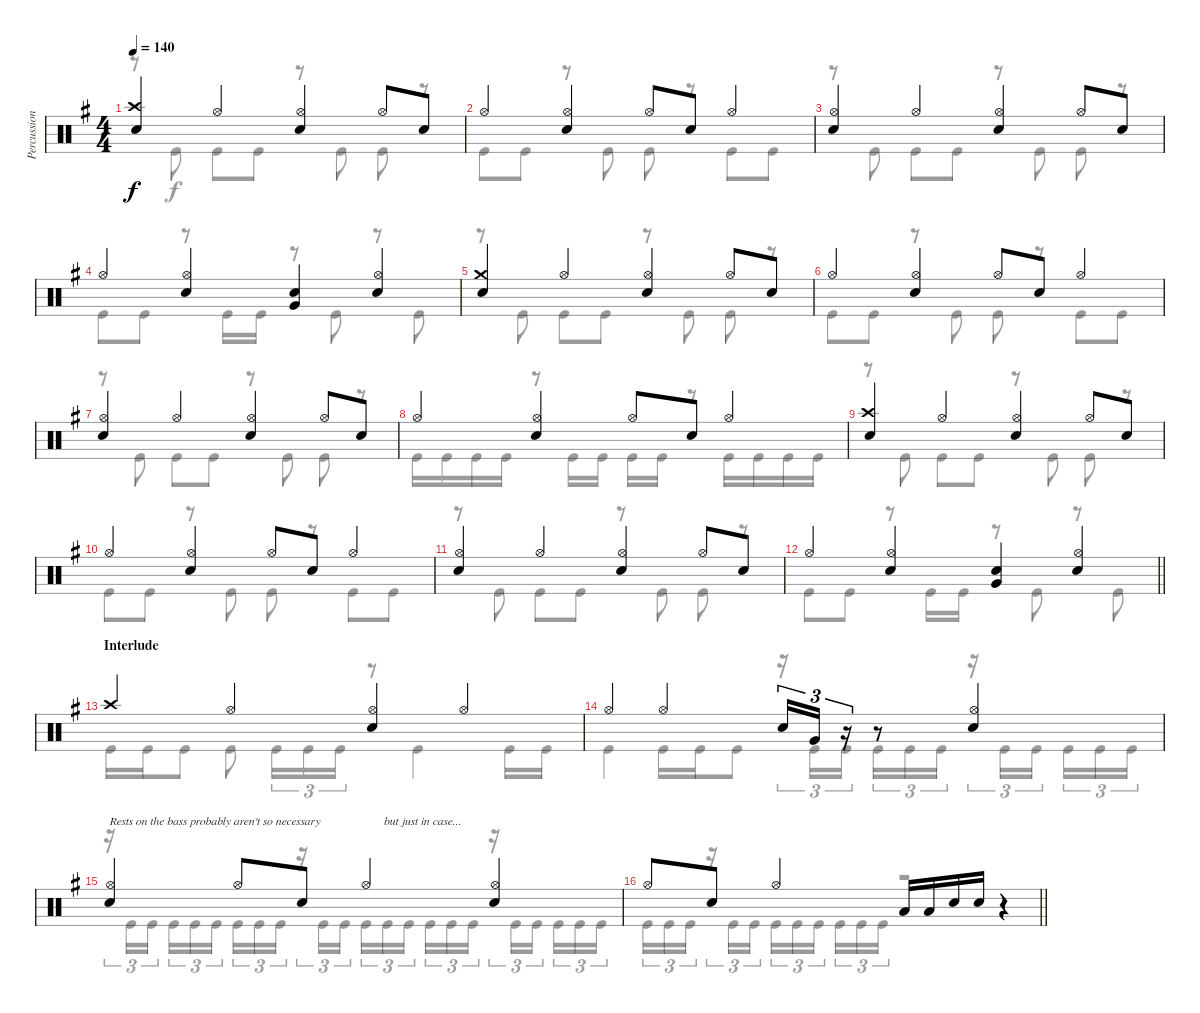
\track ("Percussion" "Percussion") {instrument percussion}
\staff {score}
\articulation defaults
\voice
\ts (4 4)
\tempo 140
\clef neutral
\ks eminor
("Crash high (hit)" "Electric Snare (hit)").4{dy f} "Hi-Hat (open)".4 ("Hi-Hat (open)" "Electric Snare (hit)").4 "Hi-Hat (open)".8 "Electric Snare (hit)".8 |
"Hi-Hat (open)".4 ("Hi-Hat (open)" "Electric Snare (hit)").4 "Hi-Hat (open)".8 "Electric Snare (hit)".8 "Hi-Hat (open)".4 |
("Hi-Hat (open)" "Electric Snare (hit)").4 "Hi-Hat (open)".4 ("Hi-Hat (open)" "Electric Snare (hit)").4 "Hi-Hat (open)".8 "Electric Snare (hit)".8 |
"Hi-Hat (open)".4 ("Hi-Hat (open)" "Electric Snare (hit)").4 ("Very Low Tom (hit)" "Electric Snare (hit)").4 ("Hi-Hat (open)" "Electric Snare (hit)").4 |
("Crash medium (hit)" "Electric Snare (hit)").4 "Hi-Hat (open)".4 ("Hi-Hat (open)" "Electric Snare (hit)").4 "Hi-Hat (open)".8 "Electric Snare (hit)".8 |
"Hi-Hat (open)".4 ("Hi-Hat (open)" "Electric Snare (hit)").4 "Hi-Hat (open)".8 "Electric Snare (hit)".8 "Hi-Hat (open)".4 |
("Hi-Hat (open)" "Electric Snare (hit)").4 "Hi-Hat (open)".4 ("Hi-Hat (open)" "Electric Snare (hit)").4 "Hi-Hat (open)".8 "Electric Snare (hit)".8 |
"Hi-Hat (open)".4 ("Hi-Hat (open)" "Electric Snare (hit)").4 "Hi-Hat (open)".8 "Electric Snare (hit)".8 "Hi-Hat (open)".4 |
("Crash high (hit)" "Electric Snare (hit)").4 "Hi-Hat (open)".4 ("Hi-Hat (open)" "Electric Snare (hit)").4 "Hi-Hat (open)".8 "Electric Snare (hit)".8 |
"Hi-Hat (open)".4 ("Hi-Hat (open)" "Electric Snare (hit)").4 "Hi-Hat (open)".8 "Electric Snare (hit)".8 "Hi-Hat (open)".4 |
("Hi-Hat (open)" "Electric Snare (hit)").4 "Hi-Hat (open)".4 ("Hi-Hat (open)" "Electric Snare (hit)").4 "Hi-Hat (open)".8 "Electric Snare (hit)".8 |
\barLineRight lightlight "Hi-Hat (open)".4
("Hi-Hat (open)" "Electric Snare (hit)").4 ("Very Low Tom (hit)" "Electric Snare (hit)").4 ("Hi-Hat (open)" "Electric Snare (hit)").4 |
\section ("" "Interlude")
"Crash high (hit)".4 "Hi-Hat (open)".4 ("Hi-Hat (open)" "Electric Snare (hit)").4 "Hi-Hat (open)".4 |
"Hi-Hat (open)".4 "Hi-Hat (open)".4 "Electric Snare (hit)".16{tu (3 2)} "Very Low Tom (hit)".16{tu (3 2)} r.16{tu (3 2)} r.8 ("Hi-Hat (open)" "Electric Snare (hit)").4 |
("Hi-Hat (open)" "Electric Snare (hit)").4{txt "Rests on the bass probably aren't so necessary"} "Hi-Hat (open)".8 "Electric Snare (hit)".8 "Hi-Hat (open)".4{txt "      but just in case..."} ("Hi-Hat (open)" "Electric Snare (hit)").4 |
\barLineRight lightlight "Hi-Hat (open)".8 "Electric Snare (hit)".8 "Hi-Hat (open)".4 "Low Tom (hit)".16 "Low Tom (hit)".16 "Electric Snare (hit)".16 "Electric Snare (hit)".16
r.4
\voice
\clef neutral
\ottava regular
\simile none
\ks eminor
r.8{dy f} "Kick (hit)".8 "Kick (hit)".8 "Kick (hit)".8 r.8 "Kick (hit)".8 "Kick (hit)".8 r.8 |
"Kick (hit)".8 "Kick (hit)".8 r.8 "Kick (hit)".8 "Kick (hit)".8 r.8 "Kick (hit)".8 "Kick (hit)".8 |
r.8 "Kick (hit)".8 "Kick (hit)".8 "Kick (hit)".8 r.8 "Kick (hit)".8 "Kick (hit)".8 r.8 |
"Kick (hit)".8 "Kick (hit)".8 r.8 "Kick (hit)".16 "Kick (hit)".16 r.8 "Kick (hit)".8 r.8 "Kick (hit)".8 |
r.8 "Kick (hit)".8 "Kick (hit)".8 "Kick (hit)".8 r.8 "Kick (hit)".8 "Kick (hit)".8 r.8 |
"Kick (hit)".8 "Kick (hit)".8 r.8 "Kick (hit)".8 "Kick (hit)".8 r.8 "Kick (hit)".8 "Kick (hit)".8 |
r.8 "Kick (hit)".8 "Kick (hit)".8 "Kick (hit)".8 r.8 "Kick (hit)".8 "Kick (hit)".8 r.8 |
"Kick (hit)".16 "Kick (hit)".16 "Kick (hit)".16 "Kick (hit)".16 r.8 "Kick (hit)".16 "Kick (hit)".16 "Kick (hit)".16 "Kick (hit)".16 r.8 "Kick (hit)".16 "Kick (hit)".16 "Kick (hit)".16 "Kick (hit)".16 |
r.8 "Kick (hit)".8 "Kick (hit)".8 "Kick (hit)".8 r.8 "Kick (hit)".8 "Kick (hit)".8 r.8 |
"Kick (hit)".8 "Kick (hit)".8 r.8 "Kick (hit)".8 "Kick (hit)".8 r.8 "Kick (hit)".8 "Kick (hit)".8 |
r.8 "Kick (hit)".8 "Kick (hit)".8 "Kick (hit)".8 r.8 "Kick (hit)".8 "Kick (hit)".8 r.8 |
\barLineRight lightlight "Kick (hit)".8 "Kick (hit)".8
r.8 "Kick (hit)".16 "Kick (hit)".16 r.8 "Kick (hit)".8 r.8 "Kick (hit)".8 |
"Kick (hit)".16 "Kick (hit)".16 "Kick (hit)".8 "Kick (hit)".8 "Kick (hit)".16{tu (3 2)} "Kick (hit)".16{tu (3 2)} "Kick (hit)".16{tu (3 2)} r.8 "Kick (hit)".4 "Kick (hit)".16 "Kick (hit)".16 |
"Kick (hit)".4 "Kick (hit)".16 "Kick (hit)".16 "Kick (hit)".8 r.16{tu (3 2)} "Kick (hit)".16{tu (3 2)} "Kick (hit)".16{tu (3 2) beam splitsecondary} "Kick (hit)".16{tu (3 2)} "Kick (hit)".16{tu (3 2)} "Kick (hit)".16{tu (3 2)} r.16{tu (3 2)} "Kick (hit)".16{tu (3 2)} "Kick (hit)".16{tu (3 2) beam splitsecondary} "Kick (hit)".16{tu (3 2)} "Kick (hit)".16{tu (3 2)} "Kick (hit)".16{tu (3 2)} |
r.16{tu (3 2)} "Kick (hit)".16{tu (3 2)} "Kick (hit)".16{tu (3 2) beam splitsecondary} "Kick (hit)".16{tu (3 2)} "Kick (hit)".16{tu (3 2)} "Kick (hit)".16{tu (3 2)} "Kick (hit)".16{tu (3 2)} "Kick (hit)".16{tu (3 2)} "Kick (hit)".16{tu (3 2)} r.16{tu (3 2)} "Kick (hit)".16{tu (3 2)} "Kick (hit)".16{tu (3 2)} "Kick (hit)".16{tu (3 2)} "Kick (hit)".16{tu (3 2)} "Kick (hit)".16{tu (3 2) beam splitsecondary} "Kick (hit)".16{tu (3 2)} "Kick (hit)".16{tu (3 2)} "Kick (hit)".16{tu (3 2)} r.16{tu (3 2)} "Kick (hit)".16{tu (3 2)} "Kick (hit)".16{tu (3 2) beam splitsecondary} "Kick (hit)".16{tu (3 2)} "Kick (hit)".16{tu (3 2)} "Kick (hit)".16{tu (3 2)} |
\barLineRight lightlight "Kick (hit)".16{tu (3 2)} "Kick (hit)".16{tu (3 2)} "Kick (hit)".16{tu (3 2)}
r.16{tu (3 2)} "Kick (hit)".16{tu (3 2)} "Kick (hit)".16{tu (3 2)} "Kick (hit)".16{tu (3 2)} "Kick (hit)".16{tu (3 2)} "Kick (hit)".16{tu (3 2) beam splitsecondary} "Kick (hit)".16{tu (3 2)} "Kick (hit)".16{tu (3 2)} "Kick (hit)".16{tu (3 2)} r.2
